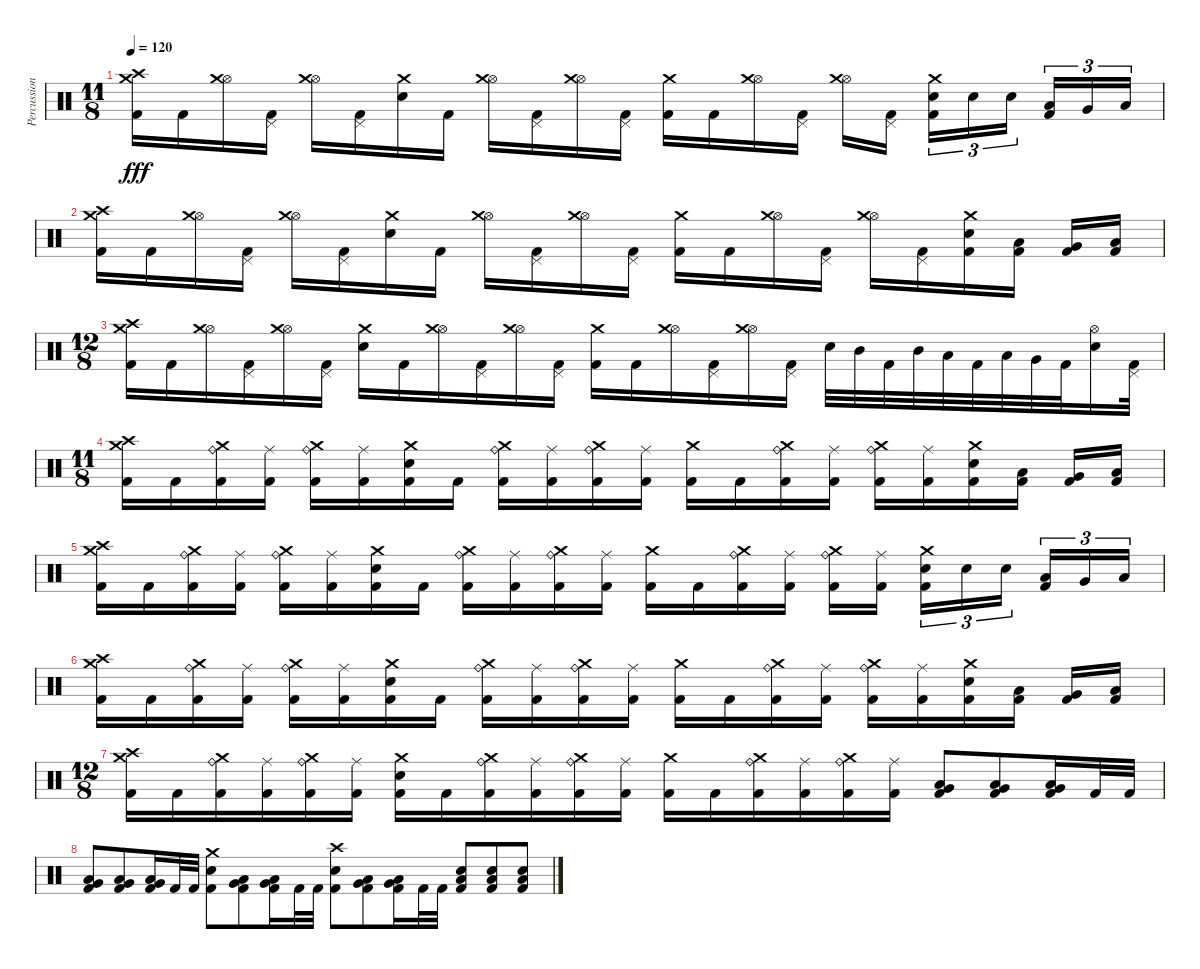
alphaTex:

\track ("Percussion" "Percussion") {instrument percussion}
\staff {score}
\articulation defaults
\ts (11 8)
\tempo 120
\clef neutral
\ks c
("Crash high (hit)" "Crash medium (hit)" "Kick (hit) 2").16{dy fff} "Kick (hit) 2".16 ("Hi-Hat (open)" "Crash medium (hit)").16 ("Pedal Hi-Hat (hit)" "Kick (hit) 2").16 ("Hi-Hat (open)" "Crash medium (hit)").16 ("Pedal Hi-Hat (hit)" "Kick (hit) 2").16 ("Crash medium (hit)" "Electric Snare (hit)").16 "Kick (hit) 2".16 ("Hi-Hat (open)" "Crash medium (hit)").16 ("Pedal Hi-Hat (hit)" "Kick (hit) 2").16 ("Hi-Hat (open)" "Crash medium (hit)").16 ("Pedal Hi-Hat (hit)" "Kick (hit) 2").16 ("Crash medium (hit)" "Kick (hit) 2").16 "Kick (hit) 2".16 ("Hi-Hat (open)" "Crash medium (hit)").16 ("Pedal Hi-Hat (hit)" "Kick (hit) 2").16 ("Hi-Hat (open)" "Crash medium (hit)").16 ("Pedal Hi-Hat (hit)" "Kick (hit) 2").16 ("Crash medium (hit)" "Electric Snare (hit)" "Kick (hit) 2").16{tu (3 2)} "Electric Snare (hit)".16{tu (3 2)} "Electric Snare (hit)".16{tu (3 2)} ("Low Tom (hit)" "Kick (hit) 2").16{tu (3 2)} "Very Low Tom (hit)".16{tu (3 2)} "Low Floor Tom (hit)".16{tu (3 2)} |
("Crash high (hit)" "Crash medium (hit)" "Kick (hit) 2").16 "Kick (hit) 2".16 ("Hi-Hat (open)" "Crash medium (hit)").16 ("Pedal Hi-Hat (hit)" "Kick (hit) 2").16 ("Hi-Hat (open)" "Crash medium (hit)").16 ("Pedal Hi-Hat (hit)" "Kick (hit) 2").16 ("Crash medium (hit)" "Electric Snare (hit)").16 "Kick (hit) 2".16 ("Hi-Hat (open)" "Crash medium (hit)").16 ("Pedal Hi-Hat (hit)" "Kick (hit) 2").16 ("Hi-Hat (open)" "Crash medium (hit)").16 ("Pedal Hi-Hat (hit)" "Kick (hit) 2").16 ("Crash medium (hit)" "Kick (hit) 2").16 "Kick (hit) 2".16 ("Hi-Hat (open)" "Crash medium (hit)").16 ("Pedal Hi-Hat (hit)" "Kick (hit) 2").16 ("Hi-Hat (open)" "Crash medium (hit)").16 ("Pedal Hi-Hat (hit)" "Kick (hit) 2").16 ("Crash medium (hit)" "Electric Snare (hit)" "Kick (hit) 2").16 ("Low Tom (hit)" "Kick (hit) 2").16 ("Very Low Tom (hit)" "Kick (hit) 2").16 ("Low Floor Tom (hit)" "Kick (hit) 2").16 |
\ts (12 8)
("Crash high (hit)" "Crash medium (hit)" "Kick (hit) 2").16 "Kick (hit) 2".16 ("Hi-Hat (open)" "Crash medium (hit)").16 ("Pedal Hi-Hat (hit)" "Kick (hit) 2").16 ("Hi-Hat (open)" "Crash medium (hit)").16 ("Pedal Hi-Hat (hit)" "Kick (hit) 2").16 ("Crash medium (hit)" "Electric Snare (hit)").16 "Kick (hit) 2".16 ("Hi-Hat (open)" "Crash medium (hit)").16 ("Pedal Hi-Hat (hit)" "Kick (hit) 2").16 ("Hi-Hat (open)" "Crash medium (hit)").16 ("Pedal Hi-Hat (hit)" "Kick (hit) 2").16 ("Crash medium (hit)" "Kick (hit) 2").16 "Kick (hit) 2".16 ("Hi-Hat (open)" "Crash medium (hit)").16 ("Pedal Hi-Hat (hit)" "Kick (hit) 2").16 ("Hi-Hat (open)" "Crash medium (hit)").16 ("Pedal Hi-Hat (hit)" "Kick (hit) 2").16 "Electric Snare (hit)".32 "Mid Tom (hit)".32 "Kick (hit) 2".32 "Mid Tom (hit)".32 "Low Tom (hit)".32 "Kick (hit) 2".32 "Low Tom (hit)".32 "Very Low Tom (hit)".32 "Kick (hit) 2".32 ("Hi-Hat (open)" "Electric Snare (hit)").16 ("Pedal Hi-Hat (hit)" "Kick (hit) 2").32 |
\ts (11 8)
("Crash high (hit)" "Crash medium (hit)" "Kick (hit) 2").16 "Kick (hit) 2".16 ("Ride (bell)" "Crash medium (hit)" "Kick (hit) 2").16 ("Ride (middle)" "Kick (hit) 2").16 ("Ride (bell)" "Crash medium (hit)" "Kick (hit) 2").16 ("Ride (middle)" "Kick (hit) 2").16 ("Crash medium (hit)" "Electric Snare (hit)" "Kick (hit) 2").16 "Kick (hit) 2".16 ("Ride (bell)" "Crash medium (hit)" "Kick (hit) 2").16 ("Ride (middle)" "Kick (hit) 2").16 ("Ride (bell)" "Crash medium (hit)" "Kick (hit) 2").16 ("Ride (middle)" "Kick (hit) 2").16 ("Crash medium (hit)" "Kick (hit) 2").16 "Kick (hit) 2".16 ("Ride (bell)" "Crash medium (hit)" "Kick (hit) 2").16 ("Ride (middle)" "Kick (hit) 2").16 ("Ride (bell)" "Crash medium (hit)" "Kick (hit) 2").16 ("Ride (middle)" "Kick (hit) 2").16 ("Crash medium (hit)" "Electric Snare (hit)" "Kick (hit) 2").16 ("Low Tom (hit)" "Kick (hit) 2").16 ("Very Low Tom (hit)" "Kick (hit) 2").16 ("Low Floor Tom (hit)" "Kick (hit) 2").16 |
("Crash high (hit)" "Crash medium (hit)" "Kick (hit) 2").16 "Kick (hit) 2".16 ("Ride (bell)" "Crash medium (hit)" "Kick (hit) 2").16 ("Ride (middle)" "Kick (hit) 2").16 ("Ride (bell)" "Crash medium (hit)" "Kick (hit) 2").16 ("Ride (middle)" "Kick (hit) 2").16 ("Crash medium (hit)" "Electric Snare (hit)" "Kick (hit) 2").16 "Kick (hit) 2".16 ("Ride (bell)" "Crash medium (hit)" "Kick (hit) 2").16 ("Ride (middle)" "Kick (hit) 2").16 ("Ride (bell)" "Crash medium (hit)" "Kick (hit) 2").16 ("Ride (middle)" "Kick (hit) 2").16 ("Crash medium (hit)" "Kick (hit) 2").16 "Kick (hit) 2".16 ("Ride (bell)" "Crash medium (hit)" "Kick (hit) 2").16 ("Ride (middle)" "Kick (hit) 2").16 ("Ride (bell)" "Crash medium (hit)" "Kick (hit) 2").16 ("Ride (middle)" "Kick (hit) 2").16 ("Crash medium (hit)" "Electric Snare (hit)" "Kick (hit) 2").16{tu (3 2)} "Electric Snare (hit)".16{tu (3 2)} "Electric Snare (hit)".16{tu (3 2)} ("Low Tom (hit)" "Kick (hit) 2").16{tu (3 2)} "Very Low Tom (hit)".16{tu (3 2)} "Low Floor Tom (hit)".16{tu (3 2)} |
("Crash high (hit)" "Crash medium (hit)" "Kick (hit) 2").16 "Kick (hit) 2".16 ("Ride (bell)" "Crash medium (hit)" "Kick (hit) 2").16 ("Ride (middle)" "Kick (hit) 2").16 ("Ride (bell)" "Crash medium (hit)" "Kick (hit) 2").16 ("Ride (middle)" "Kick (hit) 2").16 ("Crash medium (hit)" "Electric Snare (hit)" "Kick (hit) 2").16 "Kick (hit) 2".16 ("Ride (bell)" "Crash medium (hit)" "Kick (hit) 2").16 ("Ride (middle)" "Kick (hit) 2").16 ("Ride (bell)" "Crash medium (hit)" "Kick (hit) 2").16 ("Ride (middle)" "Kick (hit) 2").16 ("Crash medium (hit)" "Kick (hit) 2").16 "Kick (hit) 2".16 ("Ride (bell)" "Crash medium (hit)" "Kick (hit) 2").16 ("Ride (middle)" "Kick (hit) 2").16 ("Ride (bell)" "Crash medium (hit)" "Kick (hit) 2").16 ("Ride (middle)" "Kick (hit) 2").16 ("Crash medium (hit)" "Electric Snare (hit)" "Kick (hit) 2").16 ("Low Tom (hit)" "Kick (hit) 2").16 ("Very Low Tom (hit)" "Kick (hit) 2").16 ("Low Floor Tom (hit)" "Kick (hit) 2").16 |
\ts (12 8)
("Crash high (hit)" "Crash medium (hit)" "Kick (hit) 2").16 "Kick (hit) 2".16 ("Ride (bell)" "Crash medium (hit)" "Kick (hit) 2").16 ("Ride (middle)" "Kick (hit) 2").16 ("Ride (bell)" "Crash medium (hit)" "Kick (hit) 2").16 ("Ride (middle)" "Kick (hit) 2").16 ("Crash medium (hit)" "Electric Snare (hit)" "Kick (hit) 2").16 "Kick (hit) 2".16 ("Ride (bell)" "Crash medium (hit)" "Kick (hit) 2").16 ("Ride (middle)" "Kick (hit) 2").16 ("Ride (bell)" "Crash medium (hit)" "Kick (hit) 2").16 ("Ride (middle)" "Kick (hit) 2").16 ("Crash medium (hit)" "Kick (hit) 2").16 "Kick (hit) 2".16 ("Ride (bell)" "Crash medium (hit)" "Kick (hit) 2").16 ("Ride (middle)" "Kick (hit) 2").16 ("Ride (bell)" "Crash medium (hit)" "Kick (hit) 2").16 ("Ride (middle)" "Kick (hit) 2").16 ("Low Floor Tom (hit)" "Very Low Tom (hit)" "Kick (hit) 2").8 ("Low Floor Tom (hit)" "Very Low Tom (hit)" "Kick (hit) 2").8 ("Low Floor Tom (hit)" "Very Low Tom (hit)" "Kick (hit) 2").16 "Kick (hit) 2".32 "Kick (hit) 2".32 |
("Low Floor Tom (hit)" "Very Low Tom (hit)" "Kick (hit) 2").8 ("Low Floor Tom (hit)" "Very Low Tom (hit)" "Kick (hit) 2").8 ("Low Floor Tom (hit)" "Very Low Tom (hit)" "Kick (hit) 2").16 "Kick (hit) 2".32 "Kick (hit) 2".32 ("Crash medium (hit)" "Electric Snare (hit)" "Kick (hit) 2").8 ("Low Floor Tom (hit)" "Very Low Tom (hit)" "Kick (hit) 2").8 ("Low Floor Tom (hit)" "Very Low Tom (hit)" "Kick (hit) 2").16 "Kick (hit) 2".32 "Kick (hit) 2".32 ("Crash high (hit)" "Electric Snare (hit)" "Kick (hit) 2").8 ("Low Floor Tom (hit)" "Very Low Tom (hit)" "Kick (hit) 2").8 ("Low Floor Tom (hit)" "Very Low Tom (hit)" "Kick (hit) 2").16 "Kick (hit) 2".32 "Kick (hit) 2".32 ("Low Floor Tom (hit)" "Electric Snare (hit)" "Kick (hit) 2").8 ("Low Floor Tom (hit)" "Electric Snare (hit)" "Kick (hit) 2").8 ("Low Floor Tom (hit)" "Electric Snare (hit)" "Kick (hit) 2").8
